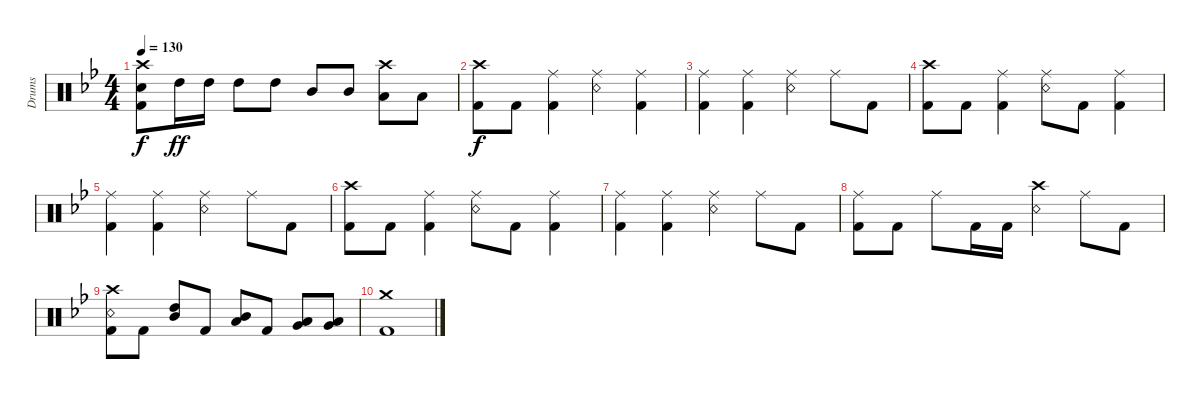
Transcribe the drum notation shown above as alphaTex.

\bracketExtendMode groupsimilarinstruments
\otherSystemsTrackNameOrientation horizontal
\track ("Schlagzeug" "Drums") {instrument percussion}
\staff {score}
\articulation defaults
\ts (4 4)
\tempo 130
\clef neutral
\ks bb
("Kick (hit) 2"{acc forcenatural} "Snare (hit) 2"{acc forcenatural} "Crash high (hit)"{acc forcenatural}).8{dy f beam Down} "High Tom (hit)"{acc forcenatural}.16{dy ff beam Down} "High Tom (hit)"{acc forcenatural}.16{beam Down} "High Tom (hit)"{acc forcenatural}.8{beam Down} "High Tom (hit)"{acc forcenatural}.8{beam Down} "Mid Tom (hit)"{acc forcenatural}.8{beam Up} "Mid Tom (hit)"{acc forcenatural}.8{beam Up} ("Low Tom (hit)"{acc forcenatural} "Crash high (hit)"{acc forcenatural}).8{beam Down} "Low Tom (hit)"{acc forcenatural}.8{beam Down} |
("Kick (hit) 2"{acc forcenatural} "Crash high (hit)"{acc forcenatural}).8{dy f beam Down} "Kick (hit) 2"{acc forcenatural}.8{beam Down} ("Kick (hit) 2"{acc forcenatural} "Ride (middle)"{acc forcenatural}).4{beam Down} ("Ride (middle)"{acc forcenatural} "Snare (rim shot)"{acc forcenatural}).4{beam Down} ("Ride (middle)"{acc forcenatural} "Kick (hit) 2"{acc forcenatural}).4{beam Down} |
("Kick (hit) 2"{acc forcenatural} "Ride (middle)"{acc forcenatural}).4{beam Down} ("Ride (middle)"{acc forcenatural} "Kick (hit) 2"{acc forcenatural}).4{beam Down} ("Ride (middle)"{acc forcenatural} "Snare (rim shot)"{acc forcenatural}).4{beam Down} "Ride (middle)"{acc forcenatural}.8{beam Down} "Kick (hit) 2"{acc forcenatural}.8{beam Down} |
("Kick (hit) 2"{acc forcenatural} "Crash high (hit)"{acc forcenatural}).8{beam Down} "Kick (hit) 2"{acc forcenatural}.8{beam Down} ("Kick (hit) 2"{acc forcenatural} "Ride (middle)"{acc forcenatural}).4{beam Down} ("Ride (middle)"{acc forcenatural} "Snare (rim shot)"{acc forcenatural}).8{beam Down} "Kick (hit) 2"{acc forcenatural}.8{beam Down} ("Kick (hit) 2"{acc forcenatural} "Ride (middle)"{acc forcenatural}).4{beam Down} |
("Kick (hit) 2"{acc forcenatural} "Ride (middle)"{acc forcenatural}).4{beam Down} ("Ride (middle)"{acc forcenatural} "Kick (hit) 2"{acc forcenatural}).4{beam Down} ("Ride (middle)"{acc forcenatural} "Snare (rim shot)"{acc forcenatural}).4{beam Down} "Ride (middle)"{acc forcenatural}.8{beam Down} "Kick (hit) 2"{acc forcenatural}.8{beam Down} |
("Kick (hit) 2"{acc forcenatural} "Crash high (hit)"{acc forcenatural}).8{beam Down} "Kick (hit) 2"{acc forcenatural}.8{beam Down} ("Kick (hit) 2"{acc forcenatural} "Ride (middle)"{acc forcenatural}).4{beam Down} ("Ride (middle)"{acc forcenatural} "Snare (rim shot)"{acc forcenatural}).8{beam Down} "Kick (hit) 2"{acc forcenatural}.8{beam Down} ("Kick (hit) 2"{acc forcenatural} "Ride (middle)"{acc forcenatural}).4{beam Down} |
("Kick (hit) 2"{acc forcenatural} "Ride (middle)"{acc forcenatural}).4{beam Down} ("Ride (middle)"{acc forcenatural} "Kick (hit) 2"{acc forcenatural}).4{beam Down} ("Ride (middle)"{acc forcenatural} "Snare (rim shot)"{acc forcenatural}).4{beam Down} "Ride (middle)"{acc forcenatural}.8{beam Down} "Kick (hit) 2"{acc forcenatural}.8{beam Down} |
("Kick (hit) 2"{acc forcenatural} "Ride (middle)"{acc forcenatural}).8{beam Down} "Kick (hit) 2"{acc forcenatural}.8{beam Down} "Ride (middle)"{acc forcenatural}.8{beam Down} "Kick (hit) 2"{acc forcenatural}.16{beam Down} "Kick (hit) 2"{acc forcenatural}.16{beam Down} ("Snare (rim shot)"{acc forcenatural} "Crash high (hit)"{acc forcenatural}).4{beam Down} "Ride (middle)"{acc forcenatural}.8{beam Down} "Kick (hit) 2"{acc forcenatural}.8{beam Down} |
("Crash high (hit)"{acc forcenatural} "Kick (hit) 2"{acc forcenatural} "Snare (rim shot)"{acc forcenatural}).8{beam Down} "Kick (hit) 2"{acc forcenatural}.8{beam Down} ("Mid Tom (hit)"{acc forcenatural} "High Tom (hit)"{acc forcenatural}).8{beam Up} "Kick (hit) 2"{acc forcenatural}.8{beam Up} ("Low Tom (hit)"{acc forcenatural} "Mid Tom (hit)"{acc forcenatural}).8{beam Up} "Kick (hit) 2"{acc forcenatural}.8{beam Up} ("Very Low Tom (hit)"{acc forcenatural} "Low Tom (hit)"{acc forcenatural}).8{beam Up} ("Low Tom (hit)"{acc forcenatural} "Very Low Tom (hit)"{acc forcenatural}).8{beam Up} |
("Kick (hit) 2"{acc forcenatural} "Crash medium (hit)"{acc forcenatural}).1{beam Down}
